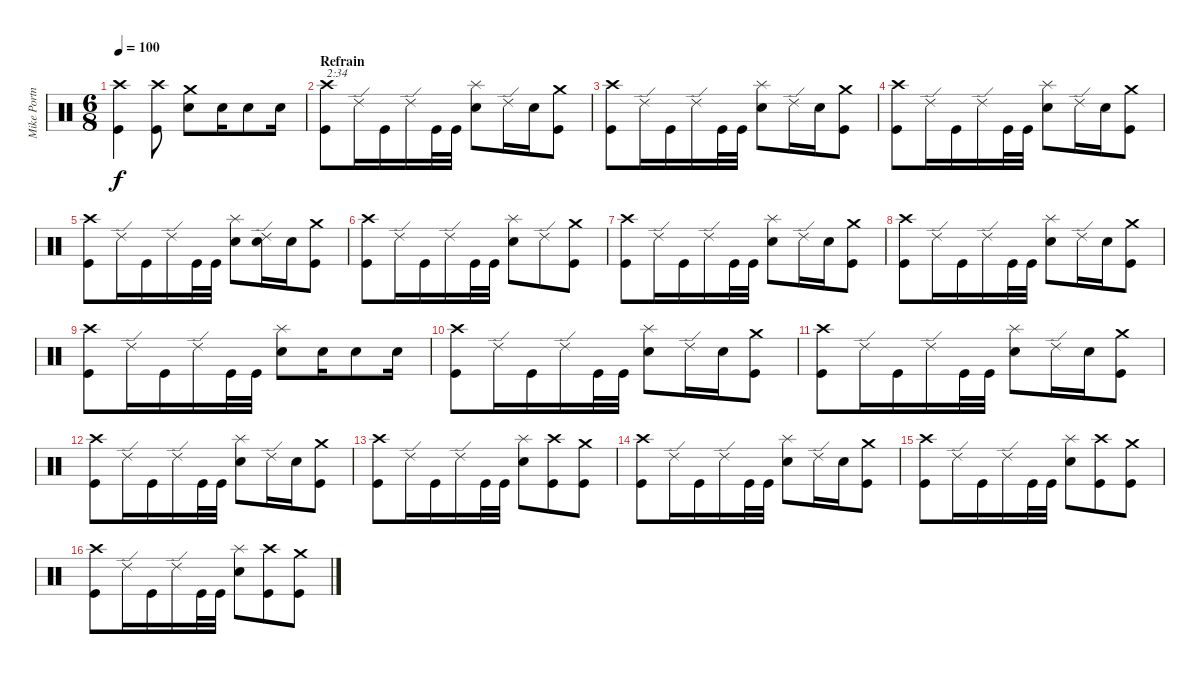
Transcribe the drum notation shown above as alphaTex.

\track ("Mike Portnoy" "Mike Portn") {instrument percussion}
\staff {score}
\articulation defaults
\ts (6 8)
\tempo 100
\clef neutral
\ks c
("Crash high (hit)" "Kick (hit)").4{dy f} ("Crash high (hit)" "Kick (hit)").8 ("Crash medium (hit)" "Snare (hit) 2").8 "Snare (hit) 2".16 "Snare (hit) 2".8 "Snare (hit) 2".16 |
\section ("" "Refrain")
("Crash high (hit)" "Kick (hit)").8{txt "2:34"} "Ride (edge) 2".16 "Kick (hit)".16 "Ride (edge) 2".16 "Kick (hit)".32 "Kick (hit)".32 ("Splash (hit)" "Snare (hit) 2").8 "Ride (edge) 2".16 "Snare (hit) 2".16 ("Crash medium (hit)" "Kick (hit)").8 |
("Crash high (hit)" "Kick (hit)").8 "Ride (edge) 2".16 "Kick (hit)".16 "Ride (edge) 2".16 "Kick (hit)".32 "Kick (hit)".32 ("Splash (hit)" "Snare (hit) 2").8 "Ride (edge) 2".16 "Snare (hit) 2".16 ("Crash medium (hit)" "Kick (hit)").8 |
("Crash high (hit)" "Kick (hit)").8 "Ride (edge) 2".16 "Kick (hit)".16 "Ride (edge) 2".16 "Kick (hit)".32 "Kick (hit)".32 ("Splash (hit)" "Snare (hit) 2").8 "Ride (edge) 2".16 "Snare (hit) 2".16 ("Crash medium (hit)" "Kick (hit)").8 |
("Crash high (hit)" "Kick (hit)").8 "Ride (edge) 2".16 "Kick (hit)".16 "Ride (edge) 2".16 "Kick (hit)".32 "Kick (hit)".32 ("Splash (hit)" "Snare (hit) 2").8 ("Ride (edge) 2" "Snare (hit) 2").16 "Snare (hit) 2".16 ("Crash medium (hit)" "Kick (hit)").8 |
("Crash high (hit)" "Kick (hit)").8 "Ride (edge) 2".16 "Kick (hit)".16 "Ride (edge) 2".16 "Kick (hit)".32 "Kick (hit)".32 ("Splash (hit)" "Snare (hit) 2").8 "Ride (edge) 2".8 ("Crash medium (hit)" "Kick (hit)").8 |
("Crash high (hit)" "Kick (hit)").8 "Ride (edge) 2".16 "Kick (hit)".16 "Ride (edge) 2".16 "Kick (hit)".32 "Kick (hit)".32 ("Splash (hit)" "Snare (hit) 2").8 "Ride (edge) 2".16 "Snare (hit) 2".16 ("Crash medium (hit)" "Kick (hit)").8 |
("Crash high (hit)" "Kick (hit)").8 "Ride (edge) 2".16 "Kick (hit)".16 "Ride (edge) 2".16 "Kick (hit)".32 "Kick (hit)".32 ("Splash (hit)" "Snare (hit) 2").8 "Ride (edge) 2".16 "Snare (hit) 2".16 ("Crash medium (hit)" "Kick (hit)").8 |
("Crash high (hit)" "Kick (hit)").8 "Ride (edge) 2".16 "Kick (hit)".16 "Ride (edge) 2".16 "Kick (hit)".32 "Kick (hit)".32 ("Splash (hit)" "Snare (hit) 2").8 "Snare (hit) 2".16 "Snare (hit) 2".8 "Snare (hit) 2".16 |
("Crash high (hit)" "Kick (hit)").8 "Ride (edge) 2".16 "Kick (hit)".16 "Ride (edge) 2".16 "Kick (hit)".32 "Kick (hit)".32 ("Splash (hit)" "Snare (hit) 2").8 "Ride (edge) 2".16 "Snare (hit) 2".16 ("Crash medium (hit)" "Kick (hit)").8 |
("Crash high (hit)" "Kick (hit)").8 "Ride (edge) 2".16 "Kick (hit)".16 "Ride (edge) 2".16 "Kick (hit)".32 "Kick (hit)".32 ("Splash (hit)" "Snare (hit) 2").8 "Ride (edge) 2".16 "Snare (hit) 2".16 ("Crash medium (hit)" "Kick (hit)").8 |
("Crash high (hit)" "Kick (hit)").8 "Ride (edge) 2".16 "Kick (hit)".16 "Ride (edge) 2".16 "Kick (hit)".32 "Kick (hit)".32 ("Splash (hit)" "Snare (hit) 2").8 "Ride (edge) 2".16 "Snare (hit) 2".16 ("Crash medium (hit)" "Kick (hit)").8 |
("Crash high (hit)" "Kick (hit)").8 "Ride (edge) 2".16 "Kick (hit)".16 "Ride (edge) 2".16 "Kick (hit)".32 "Kick (hit)".32 ("Splash (hit)" "Snare (hit) 2").8 ("Crash high (hit)" "Kick (hit)").8 ("Crash medium (hit)" "Kick (hit)").8 |
("Crash high (hit)" "Kick (hit)").8 "Ride (edge) 2".16 "Kick (hit)".16 "Ride (edge) 2".16 "Kick (hit)".32 "Kick (hit)".32 ("Splash (hit)" "Snare (hit) 2").8 "Ride (edge) 2".16 "Snare (hit) 2".16 ("Crash medium (hit)" "Kick (hit)").8 |
("Crash high (hit)" "Kick (hit)").8 "Ride (edge) 2".16 "Kick (hit)".16 "Ride (edge) 2".16 "Kick (hit)".32 "Kick (hit)".32 ("Splash (hit)" "Snare (hit) 2").8 ("Crash high (hit)" "Kick (hit)").8 ("Crash medium (hit)" "Kick (hit)").8 |
("Crash high (hit)" "Kick (hit)").8 "Ride (edge) 2".16 "Kick (hit)".16 "Ride (edge) 2".16 "Kick (hit)".32 "Kick (hit)".32 ("Splash (hit)" "Snare (hit) 2").8 ("Crash high (hit)" "Kick (hit)").8 ("Crash medium (hit)" "Kick (hit)").8
